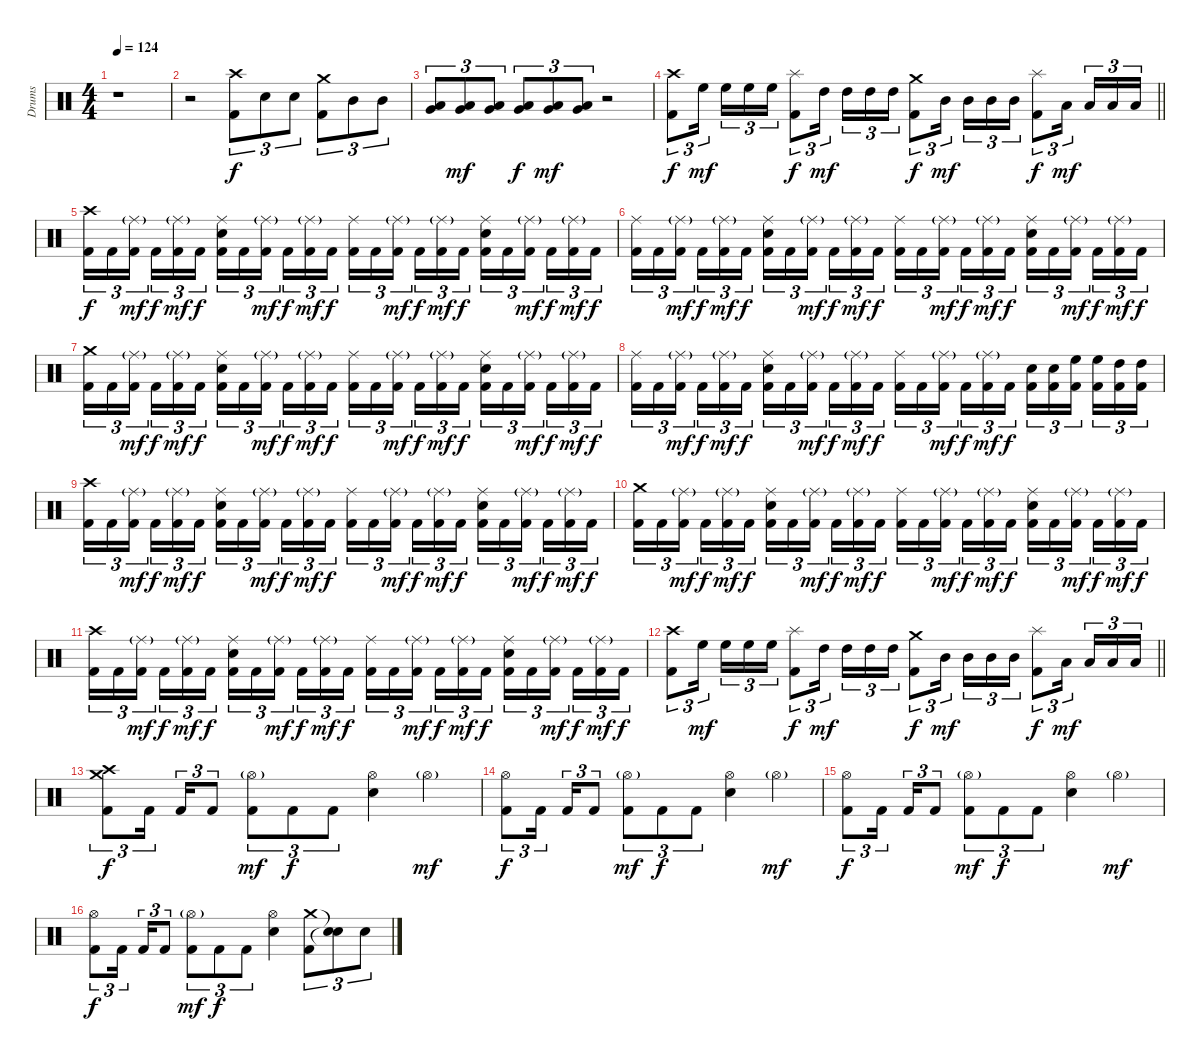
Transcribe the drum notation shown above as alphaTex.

\track ("Drums" "Drums") {instrument percussion}
\staff {score}
\articulation defaults
\ts (4 4)
\tempo 124
\clef neutral
\ks c
r.1{dy f} |
r.2 ("Crash high (hit)" "Kick (hit) 2").8{tu (3 2)} "Electric Snare (hit)".8{tu (3 2)} "Electric Snare (hit)".8{tu (3 2)} ("Crash medium (hit)" "Kick (hit) 2").8{tu (3 2)} "Mid Tom (hit)".8{tu (3 2)} "Mid Tom (hit)".8{tu (3 2)} |
("Low Tom (hit)" "Very Low Tom (hit)").8{tu (3 2)} ("Low Tom (hit)" "Very Low Tom (hit)").8{tu (3 2) dy mf} ("Low Tom (hit)" "Very Low Tom (hit)").8{tu (3 2)} ("Low Tom (hit)" "Very Low Tom (hit)").8{tu (3 2) dy f} ("Low Tom (hit)" "Very Low Tom (hit)").8{tu (3 2) dy mf} ("Low Tom (hit)" "Very Low Tom (hit)").8{tu (3 2)} r.2 |
\barLineRight lightlight
("Crash high (hit)" "Kick (hit) 2").8{tu (3 2) dy f} "High Floor Tom (hit)".16{tu (3 2) dy mf} "High Floor Tom (hit)".16{tu (3 2)} "High Floor Tom (hit)".16{tu (3 2)} "High Floor Tom (hit)".16{tu (3 2)} ("Splash (hit)" "Kick (hit) 2").8{tu (3 2) dy f} "High Tom (hit)".16{tu (3 2) dy mf} "High Tom (hit)".16{tu (3 2)} "High Tom (hit)".16{tu (3 2)} "High Tom (hit)".16{tu (3 2)} ("Crash medium (hit)" "Kick (hit) 2").8{tu (3 2) dy f} "Mid Tom (hit)".16{tu (3 2) dy mf} "Mid Tom (hit)".16{tu (3 2)} "Mid Tom (hit)".16{tu (3 2)} "Mid Tom (hit)".16{tu (3 2)} ("Splash (hit)" "Kick (hit) 2").8{tu (3 2) dy f} "Low Tom (hit)".16{tu (3 2) dy mf} "Low Tom (hit)".16{tu (3 2)} "Low Tom (hit)".16{tu (3 2)} "Low Tom (hit)".16{tu (3 2)} |
("Crash high (hit)" "Kick (hit) 2").16{tu (3 2) dy f} "Kick (hit) 2".16{tu (3 2)} ("Ride (middle)"{g} "Kick (hit) 2").16{tu (3 2) dy mf} "Kick (hit) 2".16{tu (3 2) dy f} ("Ride (middle)"{g} "Kick (hit) 2").16{tu (3 2) dy mf} "Kick (hit) 2".16{tu (3 2) dy f} ("Ride (middle)" "Electric Snare (hit)" "Kick (hit) 2").16{tu (3 2)} "Kick (hit) 2".16{tu (3 2)} ("Ride (middle)"{g} "Kick (hit) 2").16{tu (3 2) dy mf} "Kick (hit) 2".16{tu (3 2) dy f} ("Ride (middle)"{g} "Kick (hit) 2").16{tu (3 2) dy mf} "Kick (hit) 2".16{tu (3 2) dy f} ("Ride (middle)" "Kick (hit) 2").16{tu (3 2)} "Kick (hit) 2".16{tu (3 2)} ("Ride (middle)"{g} "Kick (hit) 2").16{tu (3 2) dy mf} "Kick (hit) 2".16{tu (3 2) dy f} ("Ride (middle)"{g} "Kick (hit) 2").16{tu (3 2) dy mf} "Kick (hit) 2".16{tu (3 2) dy f} ("Ride (middle)" "Electric Snare (hit)" "Kick (hit) 2").16{tu (3 2)} "Kick (hit) 2".16{tu (3 2)} ("Ride (middle)"{g} "Kick (hit) 2").16{tu (3 2) dy mf} "Kick (hit) 2".16{tu (3 2) dy f} ("Ride (middle)"{g} "Kick (hit) 2").16{tu (3 2) dy mf} "Kick (hit) 2".16{tu (3 2) dy f} |
("Ride (middle)" "Kick (hit) 2").16{tu (3 2)} "Kick (hit) 2".16{tu (3 2)} ("Ride (middle)"{g} "Kick (hit) 2").16{tu (3 2) dy mf} "Kick (hit) 2".16{tu (3 2) dy f} ("Ride (middle)"{g} "Kick (hit) 2").16{tu (3 2) dy mf} "Kick (hit) 2".16{tu (3 2) dy f} ("Ride (middle)" "Electric Snare (hit)" "Kick (hit) 2").16{tu (3 2)} "Kick (hit) 2".16{tu (3 2)} ("Ride (middle)"{g} "Kick (hit) 2").16{tu (3 2) dy mf} "Kick (hit) 2".16{tu (3 2) dy f} ("Ride (middle)"{g} "Kick (hit) 2").16{tu (3 2) dy mf} "Kick (hit) 2".16{tu (3 2) dy f} ("Ride (middle)" "Kick (hit) 2").16{tu (3 2)} "Kick (hit) 2".16{tu (3 2)} ("Ride (middle)"{g} "Kick (hit) 2").16{tu (3 2) dy mf} "Kick (hit) 2".16{tu (3 2) dy f} ("Ride (middle)"{g} "Kick (hit) 2").16{tu (3 2) dy mf} "Kick (hit) 2".16{tu (3 2) dy f} ("Ride (middle)" "Electric Snare (hit)" "Kick (hit) 2").16{tu (3 2)} "Kick (hit) 2".16{tu (3 2)} ("Ride (middle)"{g} "Kick (hit) 2").16{tu (3 2) dy mf} "Kick (hit) 2".16{tu (3 2) dy f} ("Ride (middle)"{g} "Kick (hit) 2").16{tu (3 2) dy mf} "Kick (hit) 2".16{tu (3 2) dy f} |
("Crash medium (hit)" "Kick (hit) 2").16{tu (3 2)} "Kick (hit) 2".16{tu (3 2)} ("Ride (middle)"{g} "Kick (hit) 2").16{tu (3 2) dy mf} "Kick (hit) 2".16{tu (3 2) dy f} ("Ride (middle)"{g} "Kick (hit) 2").16{tu (3 2) dy mf} "Kick (hit) 2".16{tu (3 2) dy f} ("Ride (middle)" "Electric Snare (hit)" "Kick (hit) 2").16{tu (3 2)} "Kick (hit) 2".16{tu (3 2)} ("Ride (middle)"{g} "Kick (hit) 2").16{tu (3 2) dy mf} "Kick (hit) 2".16{tu (3 2) dy f} ("Ride (middle)"{g} "Kick (hit) 2").16{tu (3 2) dy mf} "Kick (hit) 2".16{tu (3 2) dy f} ("Ride (middle)" "Kick (hit) 2").16{tu (3 2)} "Kick (hit) 2".16{tu (3 2)} ("Ride (middle)"{g} "Kick (hit) 2").16{tu (3 2) dy mf} "Kick (hit) 2".16{tu (3 2) dy f} ("Ride (middle)"{g} "Kick (hit) 2").16{tu (3 2) dy mf} "Kick (hit) 2".16{tu (3 2) dy f} ("Ride (middle)" "Electric Snare (hit)" "Kick (hit) 2").16{tu (3 2)} "Kick (hit) 2".16{tu (3 2)} ("Ride (middle)"{g} "Kick (hit) 2").16{tu (3 2) dy mf} "Kick (hit) 2".16{tu (3 2) dy f} ("Ride (middle)"{g} "Kick (hit) 2").16{tu (3 2) dy mf} "Kick (hit) 2".16{tu (3 2) dy f} |
("Ride (middle)" "Kick (hit) 2").16{tu (3 2)} "Kick (hit) 2".16{tu (3 2)} ("Ride (middle)"{g} "Kick (hit) 2").16{tu (3 2) dy mf} "Kick (hit) 2".16{tu (3 2) dy f} ("Ride (middle)"{g} "Kick (hit) 2").16{tu (3 2) dy mf} "Kick (hit) 2".16{tu (3 2) dy f} ("Ride (middle)" "Electric Snare (hit)" "Kick (hit) 2").16{tu (3 2)} "Kick (hit) 2".16{tu (3 2)} ("Ride (middle)"{g} "Kick (hit) 2").16{tu (3 2) dy mf} "Kick (hit) 2".16{tu (3 2) dy f} ("Ride (middle)"{g} "Kick (hit) 2").16{tu (3 2) dy mf} "Kick (hit) 2".16{tu (3 2) dy f} ("Ride (middle)" "Kick (hit) 2").16{tu (3 2)} "Kick (hit) 2".16{tu (3 2)} ("Ride (middle)"{g} "Kick (hit) 2").16{tu (3 2) dy mf} "Kick (hit) 2".16{tu (3 2) dy f} ("Ride (middle)"{g} "Kick (hit) 2").16{tu (3 2) dy mf} "Kick (hit) 2".16{tu (3 2) dy f} ("Electric Snare (hit)" "Kick (hit) 2").16{tu (3 2)} ("Electric Snare (hit)" "Kick (hit) 2").16{tu (3 2)} ("High Floor Tom (hit)" "Kick (hit) 2").16{tu (3 2)} ("High Floor Tom (hit)" "Kick (hit) 2").16{tu (3 2)} ("High Tom (hit)" "Kick (hit) 2").16{tu (3 2)} ("High Tom (hit)" "Kick (hit) 2").16{tu (3 2)} |
("Crash high (hit)" "Kick (hit) 2").16{tu (3 2)} "Kick (hit) 2".16{tu (3 2)} ("Ride (middle)"{g} "Kick (hit) 2").16{tu (3 2) dy mf} "Kick (hit) 2".16{tu (3 2) dy f} ("Ride (middle)"{g} "Kick (hit) 2").16{tu (3 2) dy mf} "Kick (hit) 2".16{tu (3 2) dy f} ("Ride (middle)" "Electric Snare (hit)" "Kick (hit) 2").16{tu (3 2)} "Kick (hit) 2".16{tu (3 2)} ("Ride (middle)"{g} "Kick (hit) 2").16{tu (3 2) dy mf} "Kick (hit) 2".16{tu (3 2) dy f} ("Ride (middle)"{g} "Kick (hit) 2").16{tu (3 2) dy mf} "Kick (hit) 2".16{tu (3 2) dy f} ("Ride (middle)" "Kick (hit) 2").16{tu (3 2)} "Kick (hit) 2".16{tu (3 2)} ("Ride (middle)"{g} "Kick (hit) 2").16{tu (3 2) dy mf} "Kick (hit) 2".16{tu (3 2) dy f} ("Ride (middle)"{g} "Kick (hit) 2").16{tu (3 2) dy mf} "Kick (hit) 2".16{tu (3 2) dy f} ("Ride (middle)" "Electric Snare (hit)" "Kick (hit) 2").16{tu (3 2)} "Kick (hit) 2".16{tu (3 2)} ("Ride (middle)"{g} "Kick (hit) 2").16{tu (3 2) dy mf} "Kick (hit) 2".16{tu (3 2) dy f} ("Ride (middle)"{g} "Kick (hit) 2").16{tu (3 2) dy mf} "Kick (hit) 2".16{tu (3 2) dy f} |
("Crash medium (hit)" "Kick (hit) 2").16{tu (3 2)} "Kick (hit) 2".16{tu (3 2)} ("Ride (middle)"{g} "Kick (hit) 2").16{tu (3 2) dy mf} "Kick (hit) 2".16{tu (3 2) dy f} ("Ride (middle)"{g} "Kick (hit) 2").16{tu (3 2) dy mf} "Kick (hit) 2".16{tu (3 2) dy f} ("Ride (middle)" "Electric Snare (hit)" "Kick (hit) 2").16{tu (3 2)} "Kick (hit) 2".16{tu (3 2)} ("Ride (middle)"{g} "Kick (hit) 2").16{tu (3 2) dy mf} "Kick (hit) 2".16{tu (3 2) dy f} ("Ride (middle)"{g} "Kick (hit) 2").16{tu (3 2) dy mf} "Kick (hit) 2".16{tu (3 2) dy f} ("Ride (middle)" "Kick (hit) 2").16{tu (3 2)} "Kick (hit) 2".16{tu (3 2)} ("Ride (middle)"{g} "Kick (hit) 2").16{tu (3 2) dy mf} "Kick (hit) 2".16{tu (3 2) dy f} ("Ride (middle)"{g} "Kick (hit) 2").16{tu (3 2) dy mf} "Kick (hit) 2".16{tu (3 2) dy f} ("Ride (middle)" "Electric Snare (hit)" "Kick (hit) 2").16{tu (3 2)} "Kick (hit) 2".16{tu (3 2)} ("Ride (middle)"{g} "Kick (hit) 2").16{tu (3 2) dy mf} "Kick (hit) 2".16{tu (3 2) dy f} ("Ride (middle)"{g} "Kick (hit) 2").16{tu (3 2) dy mf} "Kick (hit) 2".16{tu (3 2) dy f} |
("Crash high (hit)" "Kick (hit) 2").16{tu (3 2)} "Kick (hit) 2".16{tu (3 2)} ("Ride (middle)"{g} "Kick (hit) 2").16{tu (3 2) dy mf} "Kick (hit) 2".16{tu (3 2) dy f} ("Ride (middle)"{g} "Kick (hit) 2").16{tu (3 2) dy mf} "Kick (hit) 2".16{tu (3 2) dy f} ("Ride (middle)" "Electric Snare (hit)" "Kick (hit) 2").16{tu (3 2)} "Kick (hit) 2".16{tu (3 2)} ("Ride (middle)"{g} "Kick (hit) 2").16{tu (3 2) dy mf} "Kick (hit) 2".16{tu (3 2) dy f} ("Ride (middle)"{g} "Kick (hit) 2").16{tu (3 2) dy mf} "Kick (hit) 2".16{tu (3 2) dy f} ("Ride (middle)" "Kick (hit) 2").16{tu (3 2)} "Kick (hit) 2".16{tu (3 2)} ("Ride (middle)"{g} "Kick (hit) 2").16{tu (3 2) dy mf} "Kick (hit) 2".16{tu (3 2) dy f} ("Ride (middle)"{g} "Kick (hit) 2").16{tu (3 2) dy mf} "Kick (hit) 2".16{tu (3 2) dy f} ("Ride (middle)" "Electric Snare (hit)" "Kick (hit) 2").16{tu (3 2)} "Kick (hit) 2".16{tu (3 2)} ("Ride (middle)"{g} "Kick (hit) 2").16{tu (3 2) dy mf} "Kick (hit) 2".16{tu (3 2) dy f} ("Ride (middle)"{g} "Kick (hit) 2").16{tu (3 2) dy mf} "Kick (hit) 2".16{tu (3 2) dy f} |
\barLineRight lightlight
("Crash high (hit)" "Kick (hit) 2").8{tu (3 2)} "High Floor Tom (hit)".16{tu (3 2) dy mf} "High Floor Tom (hit)".16{tu (3 2)} "High Floor Tom (hit)".16{tu (3 2)} "High Floor Tom (hit)".16{tu (3 2)} ("Splash (hit)" "Kick (hit) 2").8{tu (3 2) dy f} "High Tom (hit)".16{tu (3 2) dy mf} "High Tom (hit)".16{tu (3 2)} "High Tom (hit)".16{tu (3 2)} "High Tom (hit)".16{tu (3 2)} ("Crash medium (hit)" "Kick (hit) 2").8{tu (3 2) dy f} "Mid Tom (hit)".16{tu (3 2) dy mf} "Mid Tom (hit)".16{tu (3 2)} "Mid Tom (hit)".16{tu (3 2)} "Mid Tom (hit)".16{tu (3 2)} ("Splash (hit)" "Kick (hit) 2").8{tu (3 2) dy f} "Low Tom (hit)".16{tu (3 2) dy mf} "Low Tom (hit)".16{tu (3 2)} "Low Tom (hit)".16{tu (3 2)} "Low Tom (hit)".16{tu (3 2)} |
("Crash high (hit)" "Crash medium (hit)" "Kick (hit) 2").8{tu (3 2) dy f} "Kick (hit) 2".16{tu (3 2)} "Kick (hit) 2".16{tu (3 2)} "Kick (hit) 2".8{tu (3 2)} ("Hi-Hat (open)"{g} "Kick (hit) 2").8{tu (3 2) dy mf} "Kick (hit) 2".8{tu (3 2) dy f} "Kick (hit) 2".8{tu (3 2)} ("Hi-Hat (open)" "Electric Snare (hit)").4 "Hi-Hat (open)"{g}.4{dy mf} |
("Hi-Hat (open)" "Kick (hit) 2").8{tu (3 2) dy f} "Kick (hit) 2".16{tu (3 2)} "Kick (hit) 2".16{tu (3 2)} "Kick (hit) 2".8{tu (3 2)} ("Hi-Hat (open)"{g} "Kick (hit) 2").8{tu (3 2) dy mf} "Kick (hit) 2".8{tu (3 2) dy f} "Kick (hit) 2".8{tu (3 2)} ("Hi-Hat (open)" "Electric Snare (hit)").4 "Hi-Hat (open)"{g}.4{dy mf} |
("Hi-Hat (open)" "Kick (hit) 2").8{tu (3 2) dy f} "Kick (hit) 2".16{tu (3 2)} "Kick (hit) 2".16{tu (3 2)} "Kick (hit) 2".8{tu (3 2)} ("Hi-Hat (open)"{g} "Kick (hit) 2").8{tu (3 2) dy mf} "Kick (hit) 2".8{tu (3 2) dy f} "Kick (hit) 2".8{tu (3 2)} ("Hi-Hat (open)" "Electric Snare (hit)").4 "Hi-Hat (open)"{g}.4{dy mf} |
("Hi-Hat (open)" "Kick (hit) 2").8{tu (3 2) dy f} "Kick (hit) 2".16{tu (3 2)} "Kick (hit) 2".16{tu (3 2)} "Kick (hit) 2".8{tu (3 2)} ("Hi-Hat (open)"{g} "Kick (hit) 2").8{tu (3 2) dy mf} "Kick (hit) 2".8{tu (3 2) dy f} "Kick (hit) 2".8{tu (3 2)} ("Hi-Hat (open)" "Electric Snare (hit)").4 ("Crash medium (hit)" "Kick (hit) 2").8{tu (3 2)} ("Snare (hit)"{t} "Snare (hit)"{t}).8{tu (3 2)} "Electric Snare (hit)".8{tu (3 2)}
